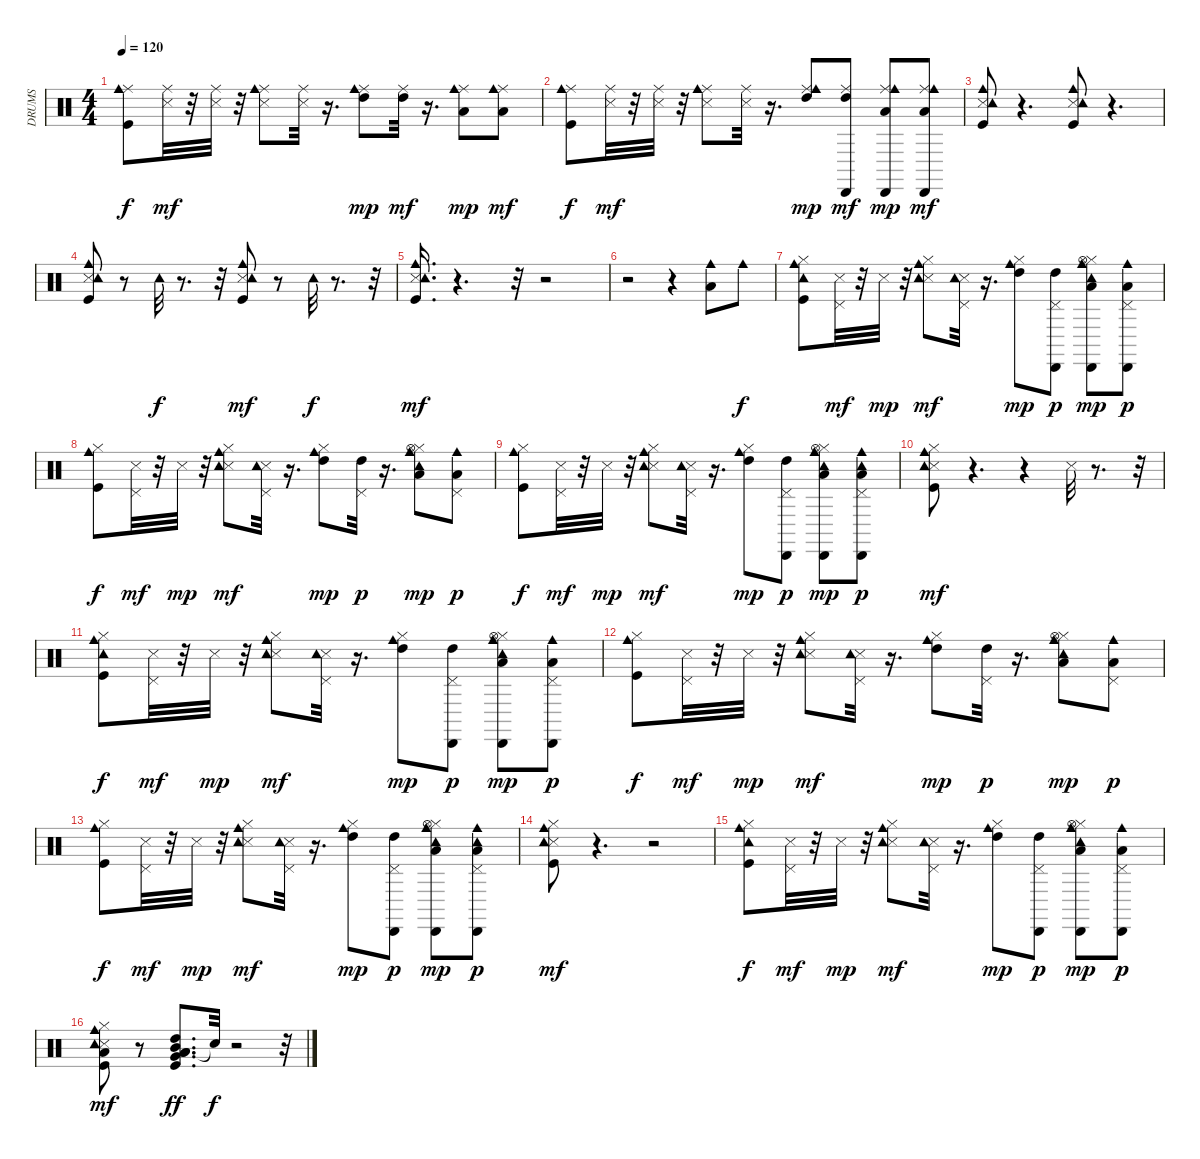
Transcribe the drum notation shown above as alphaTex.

\track ("DRUMS               " "DRUMS     ") {instrument percussion}
\staff {score}
\articulation defaults
\ts (4 4)
\tempo 120
\clef neutral
\ks c
("Kick (hit)" "Ride (middle)" "Cowbell medium (hit)").8{dy f} ("Snare (side stick) 3" "Ride (middle)").32{dy mf} r.32 ("Snare (side stick) 3" "Ride (middle)").32 r.32 ("Snare (side stick) 3" "Ride (middle)" "Cowbell medium (hit)").8 ("Snare (side stick) 3" "Ride (middle)").32 r.16{d} ("High Tom (hit)" "Ride (middle)" "Cowbell medium (hit)").8{dy mp} ("High Tom (hit)" "Ride (middle)").32{dy mf} r.16{d} ("Low Floor Tom (hit)" "Ride (middle)" "Cowbell medium (hit)").8{dy mp} ("Low Floor Tom (hit)" "Ride (middle)" "Cowbell medium (hit)").8{dy mf} |
("Kick (hit)" "Ride (middle)" "Cowbell medium (hit)").8{dy f} ("Snare (side stick) 3" "Ride (middle)").32{dy mf} r.32 ("Snare (side stick) 3" "Ride (middle)").32 r.32 ("Snare (side stick) 3" "Ride (middle)" "Cowbell medium (hit)").8 ("Snare (side stick) 3" "Ride (middle)").32 r.16{d} ("High Tom (hit)" "Ride (middle)" "Cowbell medium (hit)").8{dy mp} ("High Tom (hit)" "Ride (middle)" "Cabasa (hit)").8{dy mf} ("Low Floor Tom (hit)" "Ride (middle)" "Cowbell medium (hit)" "Cabasa (hit)").8{dy mp} ("Low Floor Tom (hit)" "Ride (middle)" "Cowbell medium (hit)" "Cabasa (hit)").8{dy mf} |
("Kick (hit)" "Snare (side stick) 3" "Tambourine (hit)" "Cowbell medium (hit)").8 r.4{d} ("Kick (hit)" "Snare (side stick) 3" "Tambourine (hit)" "Cowbell medium (hit)").8 r.4{d} |
("Kick (hit)" "Snare (side stick) 3" "Tambourine (hit)" "Cowbell medium (hit)").8 r.8 "Tambourine (hit)".32{dy f} r.8{d} r.32 ("Kick (hit)" "Snare (side stick) 3" "Tambourine (hit)" "Cowbell medium (hit)").8{dy mf} r.8 "Tambourine (hit)".32{dy f} r.8{d} r.32 |
("Kick (hit)" "Snare (side stick) 3" "Tambourine (hit)" "Cowbell medium (hit)").16{d dy mf} r.4{d} r.32 r.2 |
r.2 r.4 ("Low Floor Tom (hit)" "Cowbell medium (hit)").8 "Cowbell medium (hit)".8{dy f} |
("Kick (hit)" "Hi-Hat (closed)" "Tambourine (hit)" "Cowbell medium (hit)").8 ("Snare (side stick) 3" "Pedal Hi-Hat (hit)").32{dy mf} r.32 "Snare (side stick) 3".32{dy mp} r.32 ("Snare (side stick) 3" "Hi-Hat (closed)" "Tambourine (hit)" "Cowbell medium (hit)").8{dy mf} ("Snare (side stick) 3" "Pedal Hi-Hat (hit)" "Tambourine (hit)").32 r.16{d} ("High Tom (hit)" "Hi-Hat (closed)" "Cowbell medium (hit)").8{dy mp} ("High Tom (hit)" "Pedal Hi-Hat (hit)" "Cabasa (hit)").8{dy p} ("Low Floor Tom (hit)" "Hi-Hat (closed)" "Tambourine (hit)" "Hi-Hat (open)" "Cowbell medium (hit)" "Cabasa (hit)").8{dy mp} ("Low Floor Tom (hit)" "Pedal Hi-Hat (hit)" "Cowbell medium (hit)" "Cabasa (hit)").8{dy p} |
("Kick (hit)" "Hi-Hat (closed)" "Cowbell medium (hit)").8{dy f} ("Snare (side stick) 3" "Pedal Hi-Hat (hit)").32{dy mf} r.32 "Snare (side stick) 3".32{dy mp} r.32 ("Snare (side stick) 3" "Hi-Hat (closed)" "Tambourine (hit)" "Cowbell medium (hit)").8{dy mf} ("Snare (side stick) 3" "Pedal Hi-Hat (hit)" "Tambourine (hit)").32 r.16{d} ("High Tom (hit)" "Hi-Hat (closed)" "Cowbell medium (hit)").8{dy mp} ("High Tom (hit)" "Pedal Hi-Hat (hit)").32{dy p} r.16{d} ("Low Floor Tom (hit)" "Hi-Hat (closed)" "Tambourine (hit)" "Hi-Hat (open)" "Cowbell medium (hit)").8{dy mp} ("Low Floor Tom (hit)" "Pedal Hi-Hat (hit)" "Cowbell medium (hit)").8{dy p} |
("Kick (hit)" "Hi-Hat (closed)" "Cowbell medium (hit)").8{dy f} ("Snare (side stick) 3" "Pedal Hi-Hat (hit)").32{dy mf} r.32 "Snare (side stick) 3".32{dy mp} r.32 ("Snare (side stick) 3" "Hi-Hat (closed)" "Tambourine (hit)" "Cowbell medium (hit)").8{dy mf} ("Snare (side stick) 3" "Pedal Hi-Hat (hit)" "Tambourine (hit)").32 r.16{d} ("High Tom (hit)" "Hi-Hat (closed)" "Cowbell medium (hit)").8{dy mp} ("High Tom (hit)" "Pedal Hi-Hat (hit)" "Cabasa (hit)").8{dy p} ("Low Floor Tom (hit)" "Hi-Hat (closed)" "Hi-Hat (open)" "Cowbell medium (hit)" "Cabasa (hit)" "Tambourine (hit)").8{dy mp} ("Low Floor Tom (hit)" "Pedal Hi-Hat (hit)" "Tambourine (hit)" "Cowbell medium (hit)" "Cabasa (hit)").8{dy p} |
("Kick (hit)" "Snare (side stick) 3" "Hi-Hat (closed)" "Cowbell medium (hit)" "Tambourine (hit)").8{dy mf} r.4{d} r.4 "Snare (side stick) 3".32 r.8{d} r.32 |
("Kick (hit)" "Hi-Hat (closed)" "Tambourine (hit)" "Cowbell medium (hit)").8{dy f} ("Snare (side stick) 3" "Pedal Hi-Hat (hit)").32{dy mf} r.32 "Snare (side stick) 3".32{dy mp} r.32 ("Snare (side stick) 3" "Hi-Hat (closed)" "Tambourine (hit)" "Cowbell medium (hit)").8{dy mf} ("Snare (side stick) 3" "Pedal Hi-Hat (hit)" "Tambourine (hit)").32 r.16{d} ("High Tom (hit)" "Hi-Hat (closed)" "Cowbell medium (hit)").8{dy mp} ("High Tom (hit)" "Pedal Hi-Hat (hit)" "Cabasa (hit)").8{dy p} ("Low Floor Tom (hit)" "Hi-Hat (closed)" "Tambourine (hit)" "Hi-Hat (open)" "Cowbell medium (hit)" "Cabasa (hit)").8{dy mp} ("Low Floor Tom (hit)" "Pedal Hi-Hat (hit)" "Cowbell medium (hit)" "Cabasa (hit)").8{dy p} |
("Kick (hit)" "Hi-Hat (closed)" "Cowbell medium (hit)").8{dy f} ("Snare (side stick) 3" "Pedal Hi-Hat (hit)").32{dy mf} r.32 "Snare (side stick) 3".32{dy mp} r.32 ("Snare (side stick) 3" "Hi-Hat (closed)" "Tambourine (hit)" "Cowbell medium (hit)").8{dy mf} ("Snare (side stick) 3" "Pedal Hi-Hat (hit)" "Tambourine (hit)").32 r.16{d} ("High Tom (hit)" "Hi-Hat (closed)" "Cowbell medium (hit)").8{dy mp} ("High Tom (hit)" "Pedal Hi-Hat (hit)").32{dy p} r.16{d} ("Low Floor Tom (hit)" "Hi-Hat (closed)" "Tambourine (hit)" "Hi-Hat (open)" "Cowbell medium (hit)").8{dy mp} ("Low Floor Tom (hit)" "Pedal Hi-Hat (hit)" "Cowbell medium (hit)").8{dy p} |
("Kick (hit)" "Hi-Hat (closed)" "Cowbell medium (hit)").8{dy f} ("Snare (side stick) 3" "Pedal Hi-Hat (hit)").32{dy mf} r.32 "Snare (side stick) 3".32{dy mp} r.32 ("Snare (side stick) 3" "Hi-Hat (closed)" "Tambourine (hit)" "Cowbell medium (hit)").8{dy mf} ("Snare (side stick) 3" "Pedal Hi-Hat (hit)" "Tambourine (hit)").32 r.16{d} ("High Tom (hit)" "Hi-Hat (closed)" "Cowbell medium (hit)").8{dy mp} ("High Tom (hit)" "Pedal Hi-Hat (hit)" "Cabasa (hit)").8{dy p} ("Low Floor Tom (hit)" "Hi-Hat (closed)" "Tambourine (hit)" "Hi-Hat (open)" "Cowbell medium (hit)" "Cabasa (hit)").8{dy mp} ("Low Floor Tom (hit)" "Pedal Hi-Hat (hit)" "Tambourine (hit)" "Cowbell medium (hit)" "Cabasa (hit)").8{dy p} |
("Kick (hit)" "Snare (side stick) 3" "Hi-Hat (closed)" "Tambourine (hit)" "Cowbell medium (hit)").8{dy mf} r.4{d} r.2 |
("Kick (hit)" "Hi-Hat (closed)" "Tambourine (hit)" "Cowbell medium (hit)").8{dy f} ("Snare (side stick) 3" "Pedal Hi-Hat (hit)").32{dy mf} r.32 "Snare (side stick) 3".32{dy mp} r.32 ("Snare (side stick) 3" "Hi-Hat (closed)" "Tambourine (hit)" "Cowbell medium (hit)").8{dy mf} ("Snare (side stick) 3" "Pedal Hi-Hat (hit)" "Tambourine (hit)").32 r.16{d} ("High Tom (hit)" "Hi-Hat (closed)" "Cowbell medium (hit)").8{dy mp} ("High Tom (hit)" "Pedal Hi-Hat (hit)" "Cabasa (hit)").8{dy p} ("Low Floor Tom (hit)" "Hi-Hat (closed)" "Hi-Hat (open)" "Cowbell medium (hit)" "Cabasa (hit)" "Tambourine (hit)").8{dy mp} ("Low Floor Tom (hit)" "Pedal Hi-Hat (hit)" "Cowbell medium (hit)" "Cabasa (hit)").8{dy p} |
("Low Floor Tom (hit)" "Kick (hit)" "Snare (side stick) 3" "Hi-Hat (closed)" "Cowbell medium (hit)" "Tambourine (hit)").8{dy mf} r.8 ("Low Floor Tom (hit)" "High Tom (hit)" "Mid Tom (hit)" "Low Tom (hit)" "Very Low Tom (hit)" "Kick (hit)").8{d dy ff} "Snare (hit)"{t}.32{dy f} r.2 r.32
